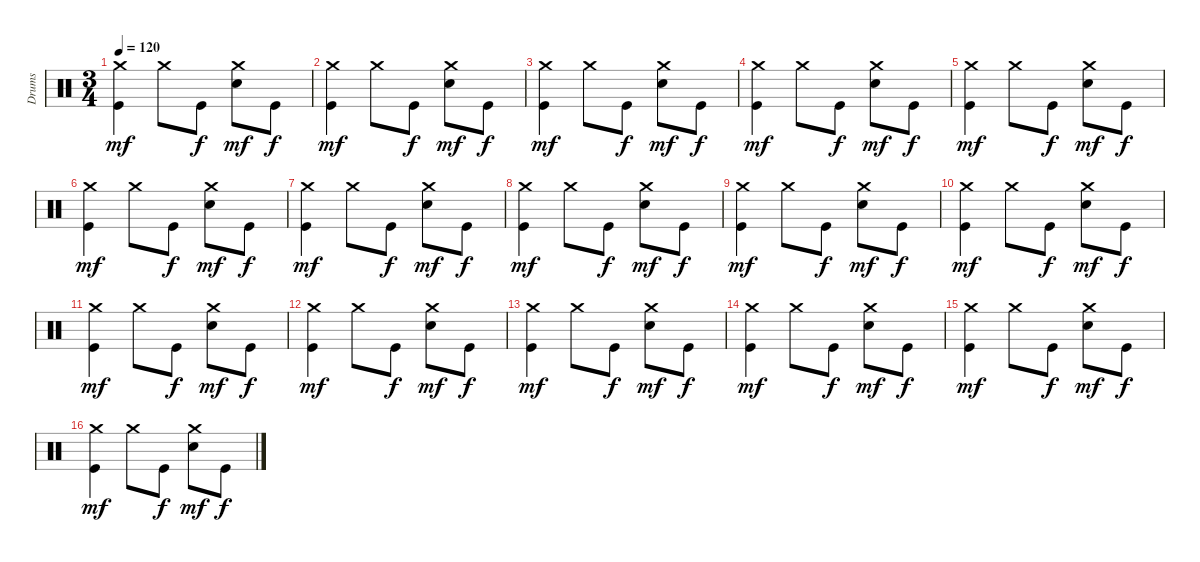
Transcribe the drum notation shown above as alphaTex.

\track ("Drums" "Drums") {instrument percussion}
\staff {score}
\articulation defaults
\ts (3 4)
\tempo 120
\clef neutral
\ks c
("Crash medium (hit)" "Kick (hit)").4{dy mf balance 10} "Crash medium (hit)".8{balance 9} "Kick (hit)".8{dy f} ("Crash medium (hit)" "Snare (hit) 2").8{dy mf balance 8} "Kick (hit)".8{dy f} |
("Crash medium (hit)" "Kick (hit)").4{dy mf balance 8} "Crash medium (hit)".8{balance 9} "Kick (hit)".8{dy f} ("Crash medium (hit)" "Snare (hit) 2").8{dy mf balance 10} "Kick (hit)".8{dy f} |
("Crash medium (hit)" "Kick (hit)").4{dy mf balance 11} "Crash medium (hit)".8{balance 12} "Kick (hit)".8{dy f} ("Crash medium (hit)" "Snare (hit) 2").8{dy mf balance 13} "Kick (hit)".8{dy f} |
("Crash medium (hit)" "Kick (hit)").4{dy mf balance 14} "Crash medium (hit)".8{balance 15} "Kick (hit)".8{dy f} ("Crash medium (hit)" "Snare (hit) 2").8{dy mf balance 16} "Kick (hit)".8{dy f} |
("Crash medium (hit)" "Kick (hit)").4{dy mf balance 0} "Crash medium (hit)".8{balance 1} "Kick (hit)".8{dy f} ("Crash medium (hit)" "Snare (hit) 2").8{dy mf balance 2} "Kick (hit)".8{dy f} |
("Crash medium (hit)" "Kick (hit)").4{dy mf balance 3} "Crash medium (hit)".8{balance 4} "Kick (hit)".8{dy f} ("Crash medium (hit)" "Snare (hit) 2").8{dy mf balance 5} "Kick (hit)".8{dy f} |
("Crash medium (hit)" "Kick (hit)").4{dy mf balance 6} "Crash medium (hit)".8{balance 7} "Kick (hit)".8{dy f} ("Crash medium (hit)" "Snare (hit) 2").8{dy mf balance 8} "Kick (hit)".8{dy f} |
("Crash medium (hit)" "Kick (hit)").4{dy mf balance 8} "Crash medium (hit)".8{balance 9} "Kick (hit)".8{dy f} ("Crash medium (hit)" "Snare (hit) 2").8{dy mf balance 10} "Kick (hit)".8{dy f} |
("Crash medium (hit)" "Kick (hit)").4{dy mf balance 11} "Crash medium (hit)".8{balance 12} "Kick (hit)".8{dy f} ("Crash medium (hit)" "Snare (hit) 2").8{dy mf balance 13} "Kick (hit)".8{dy f} |
("Crash medium (hit)" "Kick (hit)").4{dy mf balance 14} "Crash medium (hit)".8{balance 15} "Kick (hit)".8{dy f} ("Crash medium (hit)" "Snare (hit) 2").8{dy mf balance 16} "Kick (hit)".8{dy f} |
("Crash medium (hit)" "Kick (hit)").4{dy mf balance 16} "Crash medium (hit)".8{balance 15} "Kick (hit)".8{dy f} ("Crash medium (hit)" "Snare (hit) 2").8{dy mf balance 14} "Kick (hit)".8{dy f} |
("Crash medium (hit)" "Kick (hit)").4{dy mf balance 13} "Crash medium (hit)".8{balance 12} "Kick (hit)".8{dy f} ("Crash medium (hit)" "Snare (hit) 2").8{dy mf balance 11} "Kick (hit)".8{dy f} |
("Crash medium (hit)" "Kick (hit)").4{dy mf balance 10} "Crash medium (hit)".8{balance 9} "Kick (hit)".8{dy f} ("Crash medium (hit)" "Snare (hit) 2").8{dy mf balance 8} "Kick (hit)".8{dy f} |
("Crash medium (hit)" "Kick (hit)").4{dy mf balance 8} "Crash medium (hit)".8{balance 9} "Kick (hit)".8{dy f} ("Crash medium (hit)" "Snare (hit) 2").8{dy mf balance 10} "Kick (hit)".8{dy f} |
("Crash medium (hit)" "Kick (hit)").4{dy mf balance 11} "Crash medium (hit)".8{balance 12} "Kick (hit)".8{dy f} ("Crash medium (hit)" "Snare (hit) 2").8{dy mf balance 13} "Kick (hit)".8{dy f} |
("Crash medium (hit)" "Kick (hit)").4{dy mf balance 14} "Crash medium (hit)".8{balance 15} "Kick (hit)".8{dy f} ("Crash medium (hit)" "Snare (hit) 2").8{dy mf balance 16} "Kick (hit)".8{dy f}
